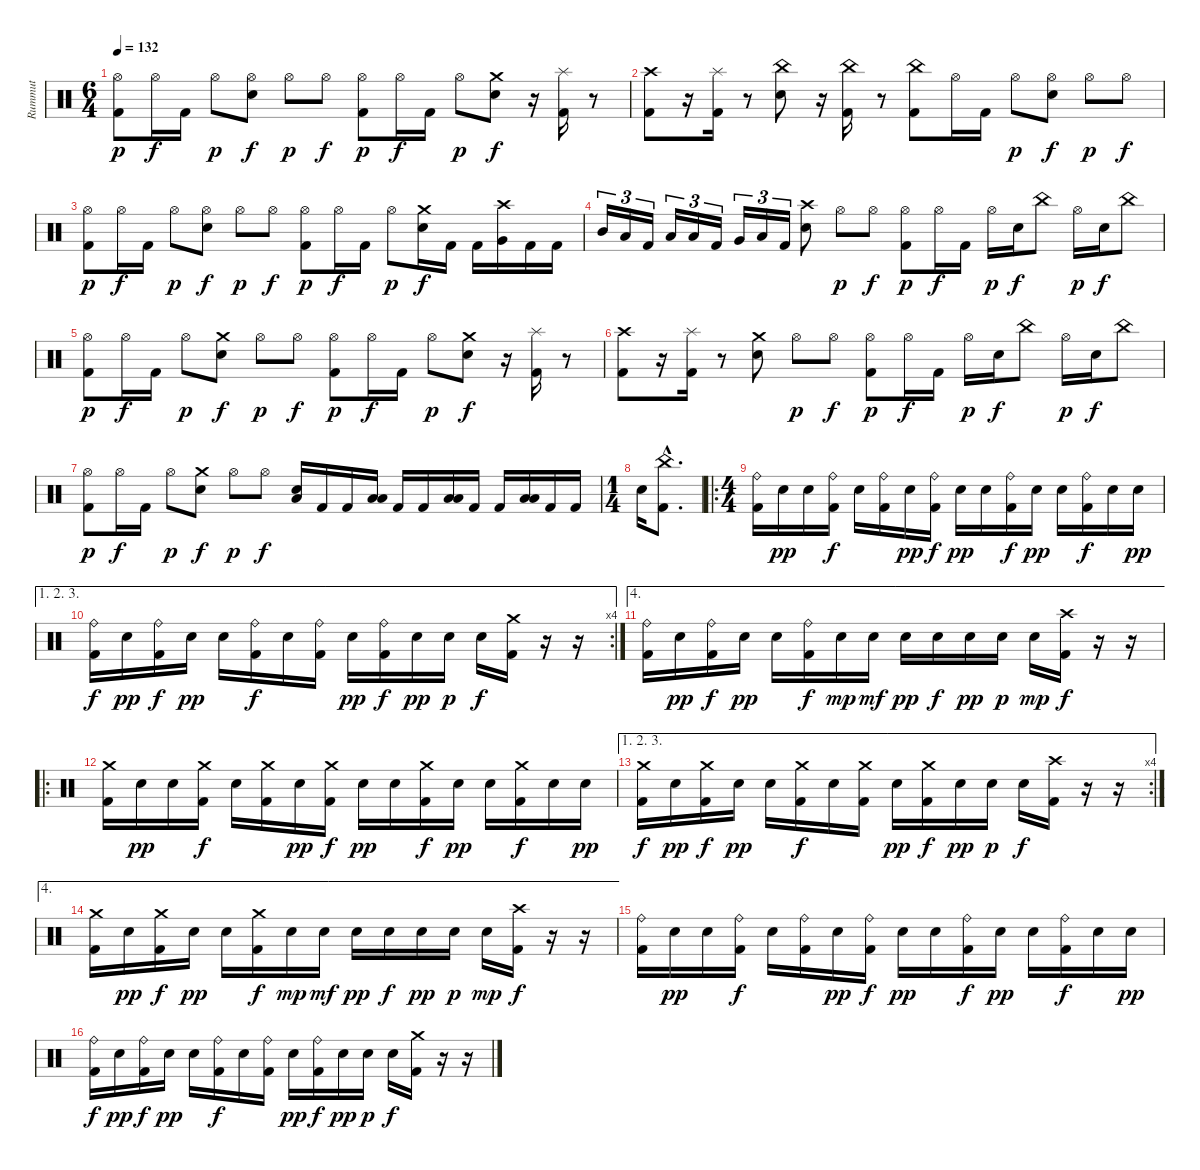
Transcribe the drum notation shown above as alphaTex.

\track ("Rummut" "Rummut") {instrument percussion}
\staff {score}
\articulation defaults
\ts (6 4)
\tempo 132
\clef neutral
\ks c
("Hi-Hat (open)" "Kick (hit) 2").8{dy p} "Hi-Hat (open)".16{dy f} "Kick (hit) 2".16 "Hi-Hat (open)".8{dy p} ("Hi-Hat (open)" "Electric Snare (hit)").8{dy f} "Hi-Hat (open)".8{dy p} "Hi-Hat (open)".8{dy f} ("Hi-Hat (open)" "Kick (hit) 2").8{dy p} "Hi-Hat (open)".16{dy f} "Kick (hit) 2".16 "Hi-Hat (open)".8{dy p} ("Crash medium (hit)" "Electric Snare (hit)").8{dy f} r.16 ("Splash (hit)" "Kick (hit) 2").16 r.8 |
("Crash high (hit)" "Kick (hit) 2").8 r.16 ("Splash (hit)" "Kick (hit) 2").16 r.8 ("China (hit)" "Electric Snare (hit)").8 r.16 ("China (hit)" "Kick (hit) 2").16 r.8 ("China (hit)" "Kick (hit) 2").8 "Hi-Hat (open)".16 "Kick (hit) 2".16 "Hi-Hat (open)".8{dy p} ("Hi-Hat (open)" "Electric Snare (hit)").8{dy f} "Hi-Hat (open)".8{dy p} "Hi-Hat (open)".8{dy f} |
("Hi-Hat (open)" "Kick (hit) 2").8{dy p} "Hi-Hat (open)".16{dy f} "Kick (hit) 2".16 "Hi-Hat (open)".8{dy p} ("Hi-Hat (open)" "Electric Snare (hit)").8{dy f} "Hi-Hat (open)".8{dy p} "Hi-Hat (open)".8{dy f} ("Hi-Hat (open)" "Kick (hit) 2").8{dy p} "Hi-Hat (open)".16{dy f} "Kick (hit) 2".16 "Hi-Hat (open)".8{dy p} ("Crash medium (hit)" "Electric Snare (hit)").16{dy f} "Kick (hit) 2".16 "Kick (hit) 2".16 ("Crash high (hit)" "Very Low Tom (hit)").16 "Kick (hit) 2".16 "Kick (hit) 2".16 |
"Mid Tom (hit)".16{tu (3 2)} "Low Floor Tom (hit)".16{tu (3 2)} "Kick (hit) 2".16{tu (3 2)} "Low Tom (hit)".16{tu (3 2)} "Low Floor Tom (hit)".16{tu (3 2)} "Kick (hit) 2".16{tu (3 2)} "Very Low Tom (hit)".16{tu (3 2)} "Low Floor Tom (hit)".16{tu (3 2)} "Kick (hit) 2".16{tu (3 2)} ("Crash high (hit)" "Electric Snare (hit)").8 "Hi-Hat (open)".8{dy p} "Hi-Hat (open)".8{dy f} ("Hi-Hat (open)" "Kick (hit) 2").8{dy p} "Hi-Hat (open)".16{dy f} "Kick (hit) 2".16 "Hi-Hat (open)".16{dy p} "Electric Snare (hit)".16{dy f} "China (hit)".8 "Hi-Hat (open)".16{dy p} "Electric Snare (hit)".16{dy f} "China (hit)".8 |
("Hi-Hat (open)" "Kick (hit) 2").8{dy p} "Hi-Hat (open)".16{dy f} "Kick (hit) 2".16 "Hi-Hat (open)".8{dy p} ("Crash medium (hit)" "Electric Snare (hit)").8{dy f} "Hi-Hat (open)".8{dy p} "Hi-Hat (open)".8{dy f} ("Hi-Hat (open)" "Kick (hit) 2").8{dy p} "Hi-Hat (open)".16{dy f} "Kick (hit) 2".16 "Hi-Hat (open)".8{dy p} ("Crash medium (hit)" "Electric Snare (hit)").8{dy f} r.16 ("Splash (hit)" "Kick (hit) 2").16 r.8 |
("Crash high (hit)" "Kick (hit) 2").8 r.16 ("Splash (hit)" "Kick (hit) 2").16 r.8 ("Crash medium (hit)" "Electric Snare (hit)").8 "Hi-Hat (open)".8{dy p} "Hi-Hat (open)".8{dy f} ("Hi-Hat (open)" "Kick (hit) 2").8{dy p} "Hi-Hat (open)".16{dy f} "Kick (hit) 2".16 "Hi-Hat (open)".16{dy p} "Electric Snare (hit)".16{dy f} "China (hit)".8 "Hi-Hat (open)".16{dy p} "Electric Snare (hit)".16{dy f} "China (hit)".8 |
("Hi-Hat (open)" "Kick (hit) 2").8{dy p} "Hi-Hat (open)".16{dy f} "Kick (hit) 2".16 "Hi-Hat (open)".8{dy p} ("Crash medium (hit)" "Electric Snare (hit)").8{dy f} "Hi-Hat (open)".8{dy p} "Hi-Hat (open)".8{dy f} ("Low Floor Tom (hit)" "Electric Snare (hit)").16 "Kick (hit) 2".16 "Kick (hit) 2".16 ("Low Tom (hit)" "Low Floor Tom (hit)").16 "Kick (hit) 2".16 "Kick (hit) 2".16 ("Low Tom (hit)" "Low Floor Tom (hit)").16 "Kick (hit) 2".16 "Kick (hit) 2".16 ("Low Tom (hit)" "Low Floor Tom (hit)").16 "Kick (hit) 2".16 "Kick (hit) 2".16 |
\ts (1 4)
"Electric Snare (hit)".16 ("China (hit)"{hac} "Kick (hit) 2"{hac}).8{d} |
\ro
\ts (4 4)
("Ride (bell)" "Kick (hit) 2").16 "Electric Snare (hit)".16{dy pp} "Electric Snare (hit)".16 ("Ride (bell)" "Kick (hit) 2").16{dy f} "Electric Snare (hit)".16 ("Ride (bell)" "Kick (hit) 2").16 "Electric Snare (hit)".16{dy pp} ("Ride (bell)" "Kick (hit) 2").16{dy f} "Electric Snare (hit)".16{dy pp} "Electric Snare (hit)".16 ("Ride (bell)" "Kick (hit) 2").16{dy f} "Electric Snare (hit)".16{dy pp} "Electric Snare (hit)".16 ("Ride (bell)" "Kick (hit) 2").16{dy f} "Electric Snare (hit)".16 "Electric Snare (hit)".16{dy pp} |
\ae (1 2 3)
\rc 4
("Ride (bell)" "Kick (hit) 2").16{dy f} "Electric Snare (hit)".16{dy pp} ("Ride (bell)" "Kick (hit) 2").16{dy f} "Electric Snare (hit)".16{dy pp} "Electric Snare (hit)".16 ("Ride (bell)" "Kick (hit) 2").16{dy f} "Electric Snare (hit)".16 ("Ride (bell)" "Kick (hit) 2").16 "Electric Snare (hit)".16{dy pp} ("Ride (bell)" "Kick (hit) 2").16{dy f} "Electric Snare (hit)".16{dy pp} "Electric Snare (hit)".16{dy p} "Electric Snare (hit)".16{dy f} ("Crash medium (hit)" "Kick (hit) 2").16 r.16 r.16 |
\ae 4
("Ride (bell)" "Kick (hit) 2").16 "Electric Snare (hit)".16{dy pp} ("Ride (bell)" "Kick (hit) 2").16{dy f} "Electric Snare (hit)".16{dy pp} "Electric Snare (hit)".16 ("Ride (bell)" "Kick (hit) 2").16{dy f} "Electric Snare (hit)".16{dy mp} "Electric Snare (hit)".16{dy mf} "Electric Snare (hit)".16{dy pp} "Electric Snare (hit)".16{dy f} "Electric Snare (hit)".16{dy pp} "Electric Snare (hit)".16{dy p} "Electric Snare (hit)".16{dy mp} ("Crash high (hit)" "Kick (hit) 2").16{dy f} r.16 r.16 |
\ro
("Crash medium (hit)" "Kick (hit) 2").16 "Electric Snare (hit)".16{dy pp} "Electric Snare (hit)".16 ("Crash medium (hit)" "Kick (hit) 2").16{dy f} "Electric Snare (hit)".16 ("Crash medium (hit)" "Kick (hit) 2").16 "Electric Snare (hit)".16{dy pp} ("Crash medium (hit)" "Kick (hit) 2").16{dy f} "Electric Snare (hit)".16{dy pp} "Electric Snare (hit)".16 ("Crash medium (hit)" "Kick (hit) 2").16{dy f} "Electric Snare (hit)".16{dy pp} "Electric Snare (hit)".16 ("Crash medium (hit)" "Kick (hit) 2").16{dy f} "Electric Snare (hit)".16 "Electric Snare (hit)".16{dy pp} |
\ae (1 2 3)
\rc 4
("Crash medium (hit)" "Kick (hit) 2").16{dy f} "Electric Snare (hit)".16{dy pp} ("Crash medium (hit)" "Kick (hit) 2").16{dy f} "Electric Snare (hit)".16{dy pp} "Electric Snare (hit)".16 ("Crash medium (hit)" "Kick (hit) 2").16{dy f} "Electric Snare (hit)".16 ("Crash medium (hit)" "Kick (hit) 2").16 "Electric Snare (hit)".16{dy pp} ("Crash medium (hit)" "Kick (hit) 2").16{dy f} "Electric Snare (hit)".16{dy pp} "Electric Snare (hit)".16{dy p} "Electric Snare (hit)".16{dy f} ("Crash high (hit)" "Kick (hit) 2").16 r.16 r.16 |
\ae 4
("Crash medium (hit)" "Kick (hit) 2").16 "Electric Snare (hit)".16{dy pp} ("Crash medium (hit)" "Kick (hit) 2").16{dy f} "Electric Snare (hit)".16{dy pp} "Electric Snare (hit)".16 ("Crash medium (hit)" "Kick (hit) 2").16{dy f} "Electric Snare (hit)".16{dy mp} "Electric Snare (hit)".16{dy mf} "Electric Snare (hit)".16{dy pp} "Electric Snare (hit)".16{dy f} "Electric Snare (hit)".16{dy pp} "Electric Snare (hit)".16{dy p} "Electric Snare (hit)".16{dy mp} ("Crash high (hit)" "Kick (hit) 2").16{dy f} r.16 r.16 |
("Ride (bell)" "Kick (hit) 2").16 "Electric Snare (hit)".16{dy pp} "Electric Snare (hit)".16 ("Ride (bell)" "Kick (hit) 2").16{dy f} "Electric Snare (hit)".16 ("Ride (bell)" "Kick (hit) 2").16 "Electric Snare (hit)".16{dy pp} ("Ride (bell)" "Kick (hit) 2").16{dy f} "Electric Snare (hit)".16{dy pp} "Electric Snare (hit)".16 ("Ride (bell)" "Kick (hit) 2").16{dy f} "Electric Snare (hit)".16{dy pp} "Electric Snare (hit)".16 ("Ride (bell)" "Kick (hit) 2").16{dy f} "Electric Snare (hit)".16 "Electric Snare (hit)".16{dy pp} |
("Ride (bell)" "Kick (hit) 2").16{dy f} "Electric Snare (hit)".16{dy pp} ("Ride (bell)" "Kick (hit) 2").16{dy f} "Electric Snare (hit)".16{dy pp} "Electric Snare (hit)".16 ("Ride (bell)" "Kick (hit) 2").16{dy f} "Electric Snare (hit)".16 ("Ride (bell)" "Kick (hit) 2").16 "Electric Snare (hit)".16{dy pp} ("Ride (bell)" "Kick (hit) 2").16{dy f} "Electric Snare (hit)".16{dy pp} "Electric Snare (hit)".16{dy p} "Electric Snare (hit)".16{dy f} ("Crash medium (hit)" "Kick (hit) 2").16 r.16 r.16
